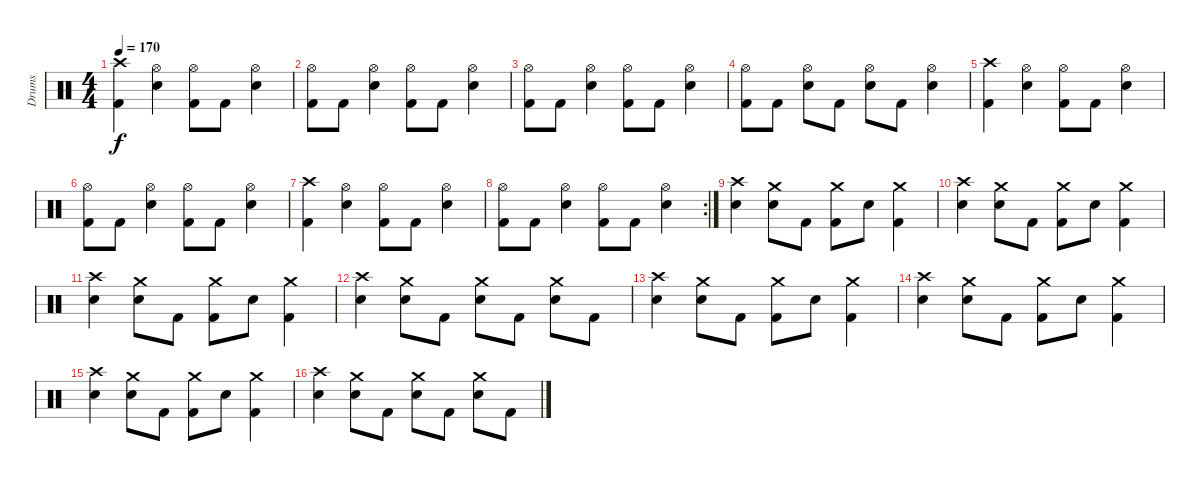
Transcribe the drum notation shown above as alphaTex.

\track ("Drums" "Drums") {instrument percussion}
\staff {score}
\articulation defaults
\ts (4 4)
\tempo 170
\clef neutral
\ks c
("Crash high (hit)" "Kick (hit) 2").4{dy f} ("Hi-Hat (open)" "Electric Snare (hit)").4 ("Hi-Hat (open)" "Kick (hit) 2").8 "Kick (hit) 2".8 ("Hi-Hat (open)" "Electric Snare (hit)").4 |
("Hi-Hat (open)" "Kick (hit) 2").8 "Kick (hit) 2".8 ("Hi-Hat (open)" "Electric Snare (hit)").4 ("Hi-Hat (open)" "Kick (hit) 2").8 "Kick (hit) 2".8 ("Hi-Hat (open)" "Electric Snare (hit)").4 |
("Hi-Hat (open)" "Kick (hit) 2").8 "Kick (hit) 2".8 ("Hi-Hat (open)" "Electric Snare (hit)").4 ("Hi-Hat (open)" "Kick (hit) 2").8 "Kick (hit) 2".8 ("Hi-Hat (open)" "Electric Snare (hit)").4 |
("Hi-Hat (open)" "Kick (hit) 2").8 "Kick (hit) 2".8 ("Hi-Hat (open)" "Electric Snare (hit)").8 "Kick (hit) 2".8 ("Hi-Hat (open)" "Electric Snare (hit)").8 "Kick (hit) 2".8 ("Hi-Hat (open)" "Electric Snare (hit)").4 |
("Crash high (hit)" "Kick (hit) 2").4 ("Hi-Hat (open)" "Electric Snare (hit)").4 ("Hi-Hat (open)" "Kick (hit) 2").8 "Kick (hit) 2".8 ("Hi-Hat (open)" "Electric Snare (hit)").4 |
("Hi-Hat (open)" "Kick (hit) 2").8 "Kick (hit) 2".8 ("Hi-Hat (open)" "Electric Snare (hit)").4 ("Hi-Hat (open)" "Kick (hit) 2").8 "Kick (hit) 2".8 ("Hi-Hat (open)" "Electric Snare (hit)").4 |
("Crash high (hit)" "Kick (hit) 2").4 ("Hi-Hat (open)" "Electric Snare (hit)").4 ("Hi-Hat (open)" "Kick (hit) 2").8 "Kick (hit) 2".8 ("Hi-Hat (open)" "Electric Snare (hit)").4 |
\rc 2
("Hi-Hat (open)" "Kick (hit) 2").8 "Kick (hit) 2".8 ("Hi-Hat (open)" "Electric Snare (hit)").4 ("Hi-Hat (open)" "Kick (hit) 2").8 "Kick (hit) 2".8 ("Hi-Hat (open)" "Electric Snare (hit)").4 |
("Crash high (hit)" "Electric Snare (hit)").4 ("Crash medium (hit)" "Electric Snare (hit)").8 "Kick (hit) 2".8 ("Crash medium (hit)" "Kick (hit) 2").8 "Electric Snare (hit)".8 ("Crash medium (hit)" "Kick (hit) 2").4 |
("Crash high (hit)" "Electric Snare (hit)").4 ("Crash medium (hit)" "Electric Snare (hit)").8 "Kick (hit) 2".8 ("Crash medium (hit)" "Kick (hit) 2").8 "Electric Snare (hit)".8 ("Crash medium (hit)" "Kick (hit) 2").4 |
("Crash high (hit)" "Electric Snare (hit)").4 ("Crash medium (hit)" "Electric Snare (hit)").8 "Kick (hit) 2".8 ("Crash medium (hit)" "Kick (hit) 2").8 "Electric Snare (hit)".8 ("Crash medium (hit)" "Kick (hit) 2").4 |
("Crash high (hit)" "Electric Snare (hit)").4 ("Crash medium (hit)" "Electric Snare (hit)").8 "Kick (hit) 2".8 ("Crash medium (hit)" "Electric Snare (hit)").8 "Kick (hit) 2".8 ("Crash medium (hit)" "Electric Snare (hit)").8 "Kick (hit) 2".8 |
("Crash high (hit)" "Electric Snare (hit)").4 ("Crash medium (hit)" "Electric Snare (hit)").8 "Kick (hit) 2".8 ("Crash medium (hit)" "Kick (hit) 2").8 "Electric Snare (hit)".8 ("Crash medium (hit)" "Kick (hit) 2").4 |
("Crash high (hit)" "Electric Snare (hit)").4 ("Crash medium (hit)" "Electric Snare (hit)").8 "Kick (hit) 2".8 ("Crash medium (hit)" "Kick (hit) 2").8 "Electric Snare (hit)".8 ("Crash medium (hit)" "Kick (hit) 2").4 |
("Crash high (hit)" "Electric Snare (hit)").4 ("Crash medium (hit)" "Electric Snare (hit)").8 "Kick (hit) 2".8 ("Crash medium (hit)" "Kick (hit) 2").8 "Electric Snare (hit)".8 ("Crash medium (hit)" "Kick (hit) 2").4 |
("Crash high (hit)" "Electric Snare (hit)").4 ("Crash medium (hit)" "Electric Snare (hit)").8 "Kick (hit) 2".8 ("Crash medium (hit)" "Electric Snare (hit)").8 "Kick (hit) 2".8 ("Crash medium (hit)" "Electric Snare (hit)").8 "Kick (hit) 2".8
